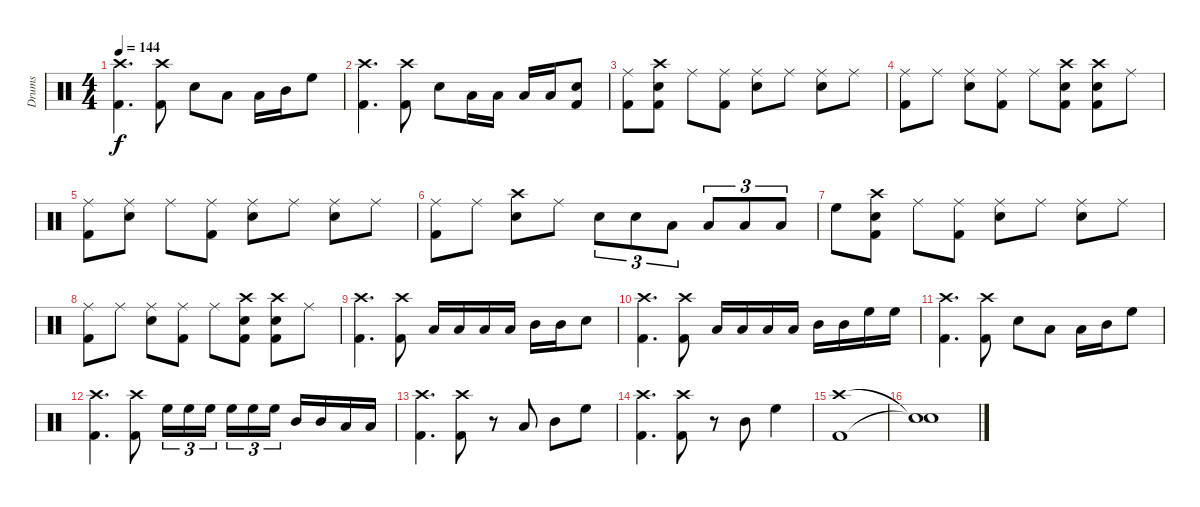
\track ("Drums" "Drums") {instrument percussion}
\staff {score}
\articulation defaults
\ts (4 4)
\tempo 144
\clef neutral
\ks c
("Crash high (hit)" "Kick (hit) 2").4{d dy f} ("Crash high (hit)" "Kick (hit) 2").8 "Snare (hit) 2".8 "Low Floor Tom (hit)".8 "Low Tom (hit)".16 "Mid Tom (hit)".16 "High Floor Tom (hit)".8 |
("Crash high (hit)" "Kick (hit) 2").4{d} ("Crash high (hit)" "Kick (hit) 2").8 "Snare (hit) 2".8 "Low Floor Tom (hit)".16 "Low Floor Tom (hit)".16 "Low Tom (hit)".16 "Low Tom (hit)".16 ("Snare (hit) 2" "Kick (hit) 2").8 |
("Ride (middle)" "Kick (hit) 2").8 ("Crash high (hit)" "Snare (hit) 2" "Kick (hit) 2").8 "Ride (middle)".8 ("Ride (middle)" "Kick (hit) 2").8 ("Ride (middle)" "Snare (hit) 2").8 "Ride (middle)".8 ("Ride (middle)" "Snare (hit) 2").8 "Ride (middle)".8 |
("Ride (middle)" "Kick (hit) 2").8 "Ride (middle)".8 ("Ride (middle)" "Snare (hit) 2").8 ("Ride (middle)" "Kick (hit) 2").8 "Ride (middle)".8 ("Crash high (hit)" "Snare (hit) 2" "Kick (hit) 2").8 ("Crash high (hit)" "Snare (hit) 2" "Kick (hit) 2").8 "Ride (middle)".8 |
("Ride (middle)" "Kick (hit) 2").8 ("Ride (middle)" "Snare (hit) 2").8 "Ride (middle)".8 ("Ride (middle)" "Kick (hit) 2").8 ("Ride (middle)" "Snare (hit) 2").8 "Ride (middle)".8 ("Ride (middle)" "Snare (hit) 2").8 "Ride (middle)".8 |
("Ride (middle)" "Kick (hit) 2").8 "Ride (middle)".8 ("Crash high (hit)" "Snare (hit) 2").8 "Ride (middle)".8 "Snare (hit) 2".8{tu (3 2)} "Snare (hit) 2".8{tu (3 2)} "Low Floor Tom (hit)".8{tu (3 2)} "Low Floor Tom (hit)".8{tu (3 2)} "Low Tom (hit)".8{tu (3 2)} "Low Tom (hit)".8{tu (3 2)} |
"High Floor Tom (hit)".8 ("Crash high (hit)" "Snare (hit) 2" "Kick (hit) 2").8 "Ride (middle)".8 ("Ride (middle)" "Kick (hit) 2").8 ("Ride (middle)" "Snare (hit) 2").8 "Ride (middle)".8 ("Ride (middle)" "Snare (hit) 2").8 "Ride (middle)".8 |
("Ride (middle)" "Kick (hit) 2").8 "Ride (middle)".8 ("Ride (middle)" "Snare (hit) 2").8 ("Ride (middle)" "Kick (hit) 2").8 "Ride (middle)".8 ("Crash high (hit)" "Snare (hit) 2" "Kick (hit) 2").8 ("Crash high (hit)" "Snare (hit) 2" "Kick (hit) 2").8 "Ride (middle)".8 |
("Crash high (hit)" "Kick (hit) 2").4{d} ("Crash high (hit)" "Kick (hit) 2").8 "Low Floor Tom (hit)".16 "Low Floor Tom (hit)".16 "Low Tom (hit)".16 "Low Tom (hit)".16 "Mid Tom (hit)".16 "Mid Tom (hit)".16 "Snare (hit) 2".8 |
("Crash high (hit)" "Kick (hit) 2").4{d} ("Crash high (hit)" "Kick (hit) 2").8 "Low Floor Tom (hit)".16 "Low Floor Tom (hit)".16 "Low Tom (hit)".16 "Low Tom (hit)".16 "Mid Tom (hit)".16 "Mid Tom (hit)".16 "High Floor Tom (hit)".16 "High Floor Tom (hit)".16 |
("Crash high (hit)" "Kick (hit) 2").4{d} ("Crash high (hit)" "Kick (hit) 2").8 "Snare (hit) 2".8 "Low Floor Tom (hit)".8 "Low Tom (hit)".16 "Mid Tom (hit)".16 "High Floor Tom (hit)".8 |
("Crash high (hit)" "Kick (hit) 2").4{d} ("Crash high (hit)" "Kick (hit) 2").8 "High Floor Tom (hit)".16{tu (3 2)} "High Floor Tom (hit)".16{tu (3 2)} "High Floor Tom (hit)".16{tu (3 2) beam splitsecondary} "High Floor Tom (hit)".16{tu (3 2)} "High Floor Tom (hit)".16{tu (3 2)} "High Floor Tom (hit)".16{tu (3 2)} "Mid Tom (hit)".16 "Mid Tom (hit)".16 "Low Tom (hit)".16 "Low Floor Tom (hit)".16 |
("Crash high (hit)" "Kick (hit) 2").4{d} ("Crash high (hit)" "Kick (hit) 2").8 r.8 "Low Tom (hit)".8 "Mid Tom (hit)".8 "High Floor Tom (hit)".8 |
("Crash high (hit)" "Kick (hit) 2").4{d} ("Crash high (hit)" "Kick (hit) 2").8 r.8 "Mid Tom (hit)".8 "High Floor Tom (hit)".4 |
("Crash high (hit)" "Kick (hit) 2").1 |
("Snare (hit)"{t} "Snare (hit)"{t}).1
